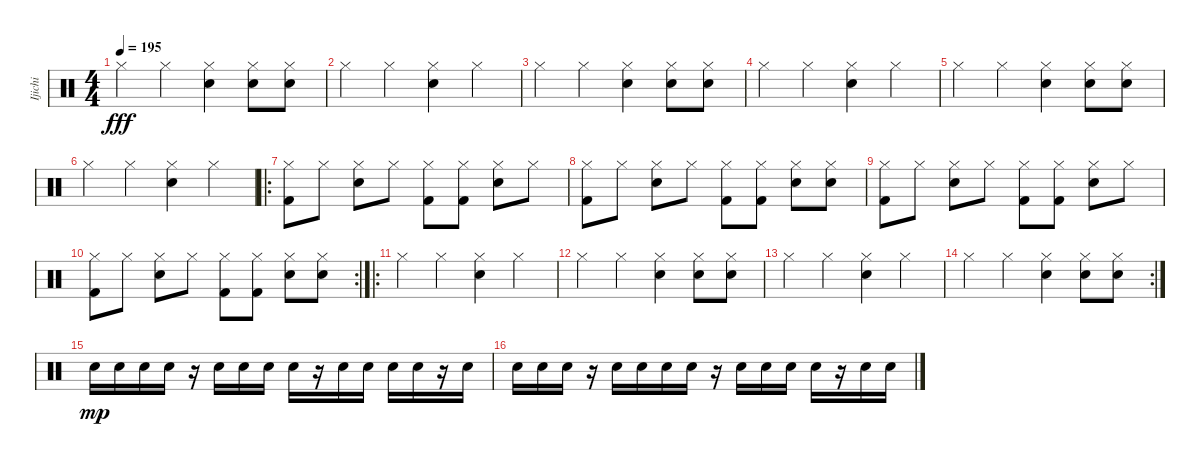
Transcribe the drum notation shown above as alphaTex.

\track ("Ijichi" "Ijichi") {instrument percussion}
\staff {score}
\articulation defaults
\ts (4 4)
\tempo 195
\clef neutral
\ks c "Hi-Hat (closed)".4{dy fff} "Hi-Hat (closed)".4
("Hi-Hat (closed)" "Snare (hit) 2").4 ("Hi-Hat (closed)" "Snare (hit) 2").8 ("Hi-Hat (closed)" "Snare (hit) 2").8 |
"Hi-Hat (closed)".4 "Hi-Hat (closed)".4 ("Hi-Hat (closed)" "Snare (hit) 2").4 "Hi-Hat (closed)".4 |
"Hi-Hat (closed)".4 "Hi-Hat (closed)".4 ("Hi-Hat (closed)" "Snare (hit) 2").4 ("Hi-Hat (closed)" "Snare (hit) 2").8 ("Hi-Hat (closed)" "Snare (hit) 2").8 |
"Hi-Hat (closed)".4 "Hi-Hat (closed)".4 ("Hi-Hat (closed)" "Snare (hit) 2").4 "Hi-Hat (closed)".4 |
"Hi-Hat (closed)".4 "Hi-Hat (closed)".4 ("Hi-Hat (closed)" "Snare (hit) 2").4 ("Hi-Hat (closed)" "Snare (hit) 2").8 ("Hi-Hat (closed)" "Snare (hit) 2").8 |
"Hi-Hat (closed)".4 "Hi-Hat (closed)".4 ("Hi-Hat (closed)" "Snare (hit) 2").4 "Hi-Hat (closed)".4 |
\ro
("Hi-Hat (closed)" "Kick (hit) 2").8 "Hi-Hat (closed)".8 ("Hi-Hat (closed)" "Snare (hit) 2").8 "Hi-Hat (closed)".8 ("Hi-Hat (closed)" "Kick (hit) 2").8 ("Hi-Hat (closed)" "Kick (hit) 2").8 ("Hi-Hat (closed)" "Snare (hit) 2").8 "Hi-Hat (closed)".8 |
("Hi-Hat (closed)" "Kick (hit) 2").8 "Hi-Hat (closed)".8 ("Hi-Hat (closed)" "Snare (hit) 2").8 "Hi-Hat (closed)".8 ("Hi-Hat (closed)" "Kick (hit) 2").8 ("Hi-Hat (closed)" "Kick (hit) 2").8 ("Hi-Hat (closed)" "Snare (hit) 2").8 ("Hi-Hat (closed)" "Snare (hit) 2").8 |
("Hi-Hat (closed)" "Kick (hit) 2").8 "Hi-Hat (closed)".8 ("Hi-Hat (closed)" "Snare (hit) 2").8 "Hi-Hat (closed)".8 ("Hi-Hat (closed)" "Kick (hit) 2").8 ("Hi-Hat (closed)" "Kick (hit) 2").8 ("Hi-Hat (closed)" "Snare (hit) 2").8 "Hi-Hat (closed)".8 |
\rc 2
("Hi-Hat (closed)" "Kick (hit) 2").8 "Hi-Hat (closed)".8 ("Hi-Hat (closed)" "Snare (hit) 2").8 "Hi-Hat (closed)".8 ("Hi-Hat (closed)" "Kick (hit) 2").8 ("Hi-Hat (closed)" "Kick (hit) 2").8 ("Hi-Hat (closed)" "Snare (hit) 2").8 ("Hi-Hat (closed)" "Snare (hit) 2").8 |
\ro "Hi-Hat (closed)".4 "Hi-Hat (closed)".4
("Hi-Hat (closed)" "Snare (hit) 2").4 "Hi-Hat (closed)".4 |
"Hi-Hat (closed)".4 "Hi-Hat (closed)".4 ("Hi-Hat (closed)" "Snare (hit) 2").4 ("Hi-Hat (closed)" "Snare (hit) 2").8 ("Hi-Hat (closed)" "Snare (hit) 2").8 |
"Hi-Hat (closed)".4 "Hi-Hat (closed)".4 ("Hi-Hat (closed)" "Snare (hit) 2").4 "Hi-Hat (closed)".4 |
\rc 2 "Hi-Hat (closed)".4 "Hi-Hat (closed)".4
("Hi-Hat (closed)" "Snare (hit) 2").4 ("Hi-Hat (closed)" "Snare (hit) 2").8 ("Hi-Hat (closed)" "Snare (hit) 2").8 |
"Snare (hit) 2".16{dy mp} "Snare (hit) 2".16 "Snare (hit) 2".16 "Snare (hit) 2".16 r.16 "Snare (hit) 2".16 "Snare (hit) 2".16 "Snare (hit) 2".16 "Snare (hit) 2".16 r.16 "Snare (hit) 2".16 "Snare (hit) 2".16 "Snare (hit) 2".16 "Snare (hit) 2".16 r.16 "Snare (hit) 2".16 |
"Snare (hit) 2".16 "Snare (hit) 2".16 "Snare (hit) 2".16 r.16 "Snare (hit) 2".16 "Snare (hit) 2".16 "Snare (hit) 2".16 "Snare (hit) 2".16 r.16 "Snare (hit) 2".16 "Snare (hit) 2".16 "Snare (hit) 2".16 "Snare (hit) 2".16 r.16 "Snare (hit) 2".16 "Snare (hit) 2".16
